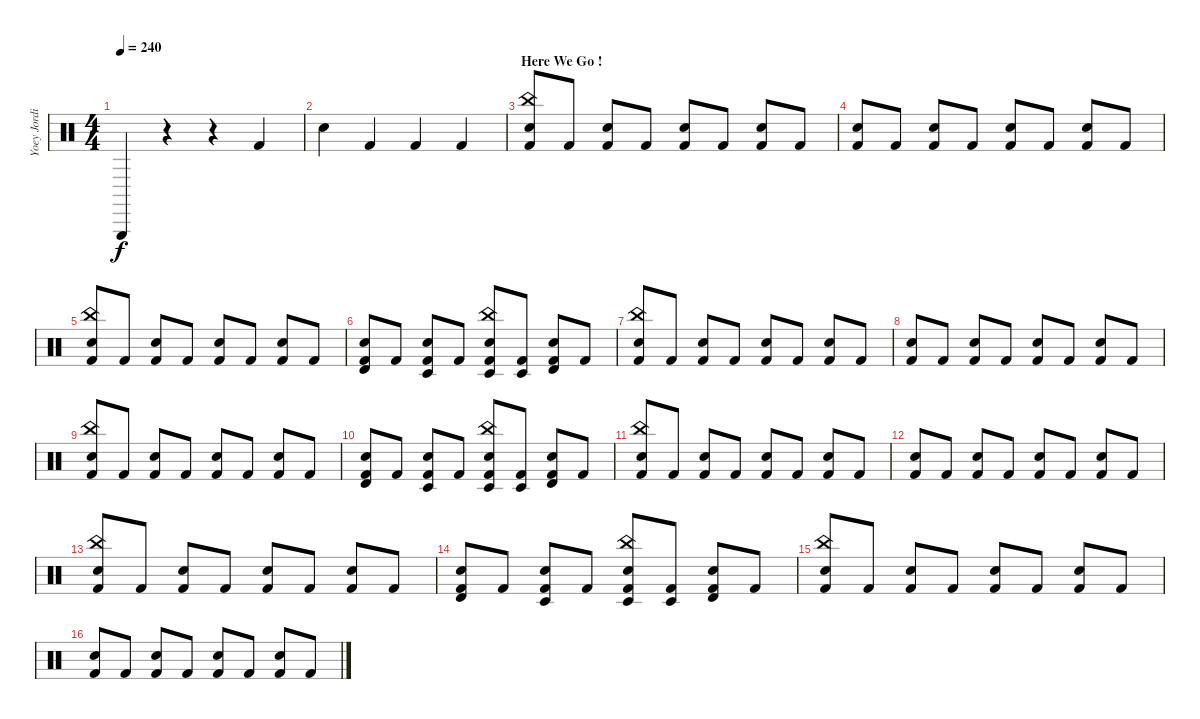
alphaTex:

\track ("Yoey Jordison" "Yoey Jordi") {instrument percussion}
\staff {score}
\articulation defaults
\ts (4 4)
\tempo 240
\clef neutral
\ks c "Triangle (hit)".4{dy f}
r.4 r.4 "Kick (hit) 2".4 |
"Snare (hit) 2".4 "Kick (hit) 2".4 "Kick (hit) 2".4 "Kick (hit) 2".4 |
\section ("" "Here We Go !")
("China (hit)" "Kick (hit) 2" "Electric Snare (hit)").8 "Kick (hit) 2".8 ("Kick (hit) 2" "Electric Snare (hit)").8 "Kick (hit) 2".8 ("Kick (hit) 2" "Electric Snare (hit)").8 "Kick (hit) 2".8 ("Kick (hit) 2" "Electric Snare (hit)").8 "Kick (hit) 2".8 |
("Kick (hit) 2" "Electric Snare (hit)").8 "Kick (hit) 2".8 ("Kick (hit) 2" "Electric Snare (hit)").8 "Kick (hit) 2".8 ("Kick (hit) 2" "Electric Snare (hit)").8 "Kick (hit) 2".8 ("Kick (hit) 2" "Electric Snare (hit)").8 "Kick (hit) 2".8 |
("China (hit)" "Kick (hit) 2" "Electric Snare (hit)").8 "Kick (hit) 2".8 ("Kick (hit) 2" "Electric Snare (hit)").8 "Kick (hit) 2".8 ("Kick (hit) 2" "Electric Snare (hit)").8 "Kick (hit) 2".8 ("Kick (hit) 2" "Electric Snare (hit)").8 "Kick (hit) 2".8 |
("Timbale high (hit)" "Kick (hit) 2" "Electric Snare (hit)").8 "Kick (hit) 2".8 ("Timbale low (hit)" "Kick (hit) 2" "Electric Snare (hit)").8 "Kick (hit) 2".8 ("China (hit)" "Timbale low (hit)" "Kick (hit) 2" "Electric Snare (hit)").8 ("Timbale low (hit)" "Kick (hit) 2").8 ("Timbale high (hit)" "Kick (hit) 2" "Electric Snare (hit)").8 "Kick (hit) 2".8 |
("China (hit)" "Kick (hit) 2" "Electric Snare (hit)").8 "Kick (hit) 2".8 ("Kick (hit) 2" "Electric Snare (hit)").8 "Kick (hit) 2".8 ("Kick (hit) 2" "Electric Snare (hit)").8 "Kick (hit) 2".8 ("Kick (hit) 2" "Electric Snare (hit)").8 "Kick (hit) 2".8 |
("Kick (hit) 2" "Electric Snare (hit)").8 "Kick (hit) 2".8 ("Kick (hit) 2" "Electric Snare (hit)").8 "Kick (hit) 2".8 ("Kick (hit) 2" "Electric Snare (hit)").8 "Kick (hit) 2".8 ("Kick (hit) 2" "Electric Snare (hit)").8 "Kick (hit) 2".8 |
("China (hit)" "Kick (hit) 2" "Electric Snare (hit)").8 "Kick (hit) 2".8 ("Kick (hit) 2" "Electric Snare (hit)").8 "Kick (hit) 2".8 ("Kick (hit) 2" "Electric Snare (hit)").8 "Kick (hit) 2".8 ("Kick (hit) 2" "Electric Snare (hit)").8 "Kick (hit) 2".8 |
("Timbale high (hit)" "Kick (hit) 2" "Electric Snare (hit)").8 "Kick (hit) 2".8 ("Timbale low (hit)" "Kick (hit) 2" "Electric Snare (hit)").8 "Kick (hit) 2".8 ("China (hit)" "Timbale low (hit)" "Kick (hit) 2" "Electric Snare (hit)").8 ("Timbale low (hit)" "Kick (hit) 2").8 ("Timbale high (hit)" "Kick (hit) 2" "Electric Snare (hit)").8 "Kick (hit) 2".8 |
("China (hit)" "Kick (hit) 2" "Electric Snare (hit)").8 "Kick (hit) 2".8 ("Kick (hit) 2" "Electric Snare (hit)").8 "Kick (hit) 2".8 ("Kick (hit) 2" "Electric Snare (hit)").8 "Kick (hit) 2".8 ("Kick (hit) 2" "Electric Snare (hit)").8 "Kick (hit) 2".8 |
("Kick (hit) 2" "Electric Snare (hit)").8 "Kick (hit) 2".8 ("Kick (hit) 2" "Electric Snare (hit)").8 "Kick (hit) 2".8 ("Kick (hit) 2" "Electric Snare (hit)").8 "Kick (hit) 2".8 ("Kick (hit) 2" "Electric Snare (hit)").8 "Kick (hit) 2".8 |
("China (hit)" "Kick (hit) 2" "Electric Snare (hit)").8 "Kick (hit) 2".8 ("Kick (hit) 2" "Electric Snare (hit)").8 "Kick (hit) 2".8 ("Kick (hit) 2" "Electric Snare (hit)").8 "Kick (hit) 2".8 ("Kick (hit) 2" "Electric Snare (hit)").8 "Kick (hit) 2".8 |
("Timbale high (hit)" "Kick (hit) 2" "Electric Snare (hit)").8 "Kick (hit) 2".8 ("Timbale low (hit)" "Kick (hit) 2" "Electric Snare (hit)").8 "Kick (hit) 2".8 ("China (hit)" "Timbale low (hit)" "Kick (hit) 2" "Electric Snare (hit)").8 ("Timbale low (hit)" "Kick (hit) 2").8 ("Timbale high (hit)" "Kick (hit) 2" "Electric Snare (hit)").8 "Kick (hit) 2".8 |
("China (hit)" "Kick (hit) 2" "Electric Snare (hit)").8 "Kick (hit) 2".8 ("Kick (hit) 2" "Electric Snare (hit)").8 "Kick (hit) 2".8 ("Kick (hit) 2" "Electric Snare (hit)").8 "Kick (hit) 2".8 ("Kick (hit) 2" "Electric Snare (hit)").8 "Kick (hit) 2".8 |
("Kick (hit) 2" "Electric Snare (hit)").8 "Kick (hit) 2".8 ("Kick (hit) 2" "Electric Snare (hit)").8 "Kick (hit) 2".8 ("Kick (hit) 2" "Electric Snare (hit)").8 "Kick (hit) 2".8 ("Kick (hit) 2" "Electric Snare (hit)").8 "Kick (hit) 2".8
